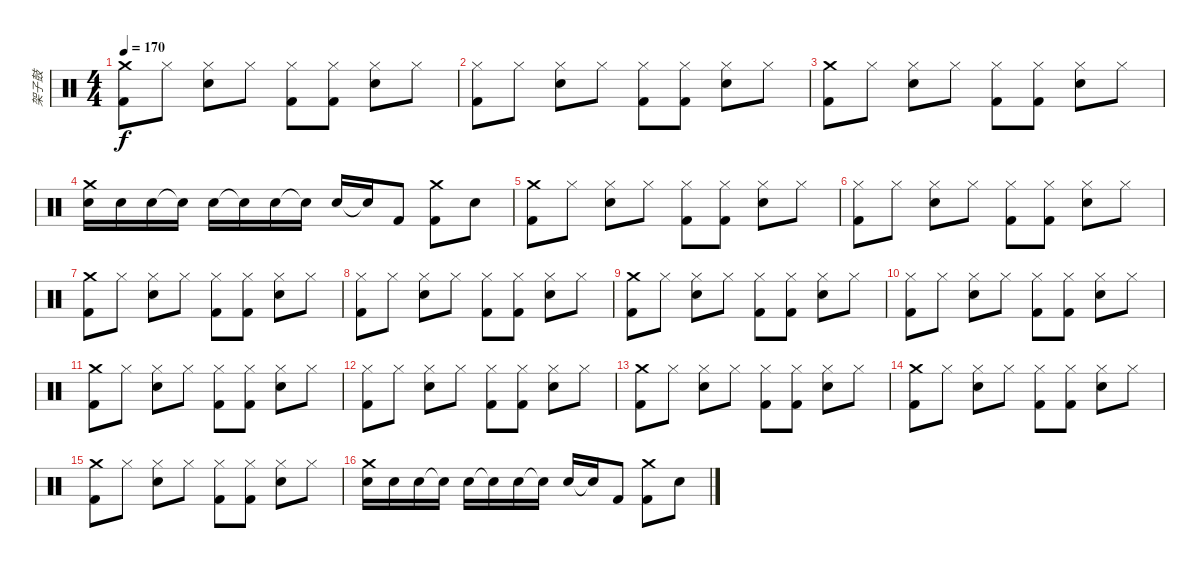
\track ("架子鼓" "架子鼓") {instrument percussion}
\staff {score}
\articulation defaults
\ts (4 4)
\tempo 170
\clef neutral
\ks c
("Crash medium (hit)" "Kick (hit) 2").8{dy f} "Hi-Hat (closed)".8 ("Hi-Hat (closed)" "Snare (hit) 2").8 "Hi-Hat (closed)".8 ("Hi-Hat (closed)" "Kick (hit) 2").8 ("Hi-Hat (closed)" "Kick (hit) 2").8 ("Hi-Hat (closed)" "Snare (hit) 2").8 "Hi-Hat (closed)".8 |
("Hi-Hat (closed)" "Kick (hit) 2").8 "Hi-Hat (closed)".8 ("Hi-Hat (closed)" "Snare (hit) 2").8 "Hi-Hat (closed)".8 ("Hi-Hat (closed)" "Kick (hit) 2").8 ("Hi-Hat (closed)" "Kick (hit) 2").8 ("Hi-Hat (closed)" "Snare (hit) 2").8 "Hi-Hat (closed)".8 |
("Crash medium (hit)" "Kick (hit) 2").8 "Hi-Hat (closed)".8 ("Hi-Hat (closed)" "Snare (hit) 2").8 "Hi-Hat (closed)".8 ("Hi-Hat (closed)" "Kick (hit) 2").8 ("Hi-Hat (closed)" "Kick (hit) 2").8 ("Hi-Hat (closed)" "Snare (hit) 2").8 "Hi-Hat (closed)".8 |
("Crash medium (hit)" "Snare (hit) 2").16 "Snare (hit) 2".16 "Snare (hit) 2".16 "Snare (hit)"{t}.16 "Snare (hit) 2".16 "Snare (hit)"{t}.16 "Snare (hit) 2".16 "Snare (hit)"{t}.16 "Snare (hit) 2".16 "Snare (hit)"{t}.16 "Kick (hit) 2".8 ("Crash medium (hit)" "Kick (hit) 2").8 "Snare (hit) 2".8 |
("Crash medium (hit)" "Kick (hit) 2").8 "Hi-Hat (closed)".8 ("Hi-Hat (closed)" "Snare (hit) 2").8 "Hi-Hat (closed)".8 ("Hi-Hat (closed)" "Kick (hit) 2").8 ("Hi-Hat (closed)" "Kick (hit) 2").8 ("Hi-Hat (closed)" "Snare (hit) 2").8 "Hi-Hat (closed)".8 |
("Hi-Hat (closed)" "Kick (hit) 2").8 "Hi-Hat (closed)".8 ("Hi-Hat (closed)" "Snare (hit) 2").8 "Hi-Hat (closed)".8 ("Hi-Hat (closed)" "Kick (hit) 2").8 ("Hi-Hat (closed)" "Kick (hit) 2").8 ("Hi-Hat (closed)" "Snare (hit) 2").8 "Hi-Hat (closed)".8 |
("Crash medium (hit)" "Kick (hit) 2").8 "Hi-Hat (closed)".8 ("Hi-Hat (closed)" "Snare (hit) 2").8 "Hi-Hat (closed)".8 ("Hi-Hat (closed)" "Kick (hit) 2").8 ("Hi-Hat (closed)" "Kick (hit) 2").8 ("Hi-Hat (closed)" "Snare (hit) 2").8 "Hi-Hat (closed)".8 |
("Hi-Hat (closed)" "Kick (hit) 2").8 "Hi-Hat (closed)".8 ("Hi-Hat (closed)" "Snare (hit) 2").8 "Hi-Hat (closed)".8 ("Hi-Hat (closed)" "Kick (hit) 2").8 ("Hi-Hat (closed)" "Kick (hit) 2").8 ("Hi-Hat (closed)" "Snare (hit) 2").8 "Hi-Hat (closed)".8 |
("Crash medium (hit)" "Kick (hit) 2").8 "Hi-Hat (closed)".8 ("Hi-Hat (closed)" "Snare (hit) 2").8 "Hi-Hat (closed)".8 ("Hi-Hat (closed)" "Kick (hit) 2").8 ("Hi-Hat (closed)" "Kick (hit) 2").8 ("Hi-Hat (closed)" "Snare (hit) 2").8 "Hi-Hat (closed)".8 |
("Hi-Hat (closed)" "Kick (hit) 2").8 "Hi-Hat (closed)".8 ("Hi-Hat (closed)" "Snare (hit) 2").8 "Hi-Hat (closed)".8 ("Hi-Hat (closed)" "Kick (hit) 2").8 ("Hi-Hat (closed)" "Kick (hit) 2").8 ("Hi-Hat (closed)" "Snare (hit) 2").8 "Hi-Hat (closed)".8 |
("Crash medium (hit)" "Kick (hit) 2").8 "Hi-Hat (closed)".8 ("Hi-Hat (closed)" "Snare (hit) 2").8 "Hi-Hat (closed)".8 ("Hi-Hat (closed)" "Kick (hit) 2").8 ("Hi-Hat (closed)" "Kick (hit) 2").8 ("Hi-Hat (closed)" "Snare (hit) 2").8 "Hi-Hat (closed)".8 |
("Hi-Hat (closed)" "Kick (hit) 2").8 "Hi-Hat (closed)".8 ("Hi-Hat (closed)" "Snare (hit) 2").8 "Hi-Hat (closed)".8 ("Hi-Hat (closed)" "Kick (hit) 2").8 ("Hi-Hat (closed)" "Kick (hit) 2").8 ("Hi-Hat (closed)" "Snare (hit) 2").8 "Hi-Hat (closed)".8 |
("Crash medium (hit)" "Kick (hit) 2").8 "Hi-Hat (closed)".8 ("Hi-Hat (closed)" "Snare (hit) 2").8 "Hi-Hat (closed)".8 ("Hi-Hat (closed)" "Kick (hit) 2").8 ("Hi-Hat (closed)" "Kick (hit) 2").8 ("Hi-Hat (closed)" "Snare (hit) 2").8 "Hi-Hat (closed)".8 |
("Crash medium (hit)" "Kick (hit) 2").8 "Hi-Hat (closed)".8 ("Hi-Hat (closed)" "Snare (hit) 2").8 "Hi-Hat (closed)".8 ("Hi-Hat (closed)" "Kick (hit) 2").8 ("Hi-Hat (closed)" "Kick (hit) 2").8 ("Hi-Hat (closed)" "Snare (hit) 2").8 "Hi-Hat (closed)".8 |
("Crash medium (hit)" "Kick (hit) 2").8 "Hi-Hat (closed)".8 ("Hi-Hat (closed)" "Snare (hit) 2").8 "Hi-Hat (closed)".8 ("Hi-Hat (closed)" "Kick (hit) 2").8 ("Hi-Hat (closed)" "Kick (hit) 2").8 ("Hi-Hat (closed)" "Snare (hit) 2").8 "Hi-Hat (closed)".8 |
("Crash medium (hit)" "Snare (hit) 2").16 "Snare (hit) 2".16 "Snare (hit) 2".16 "Snare (hit)"{t}.16 "Snare (hit) 2".16 "Snare (hit)"{t}.16 "Snare (hit) 2".16 "Snare (hit)"{t}.16 "Snare (hit) 2".16 "Snare (hit)"{t}.16 "Kick (hit) 2".8 ("Crash medium (hit)" "Kick (hit) 2").8 "Snare (hit) 2".8
